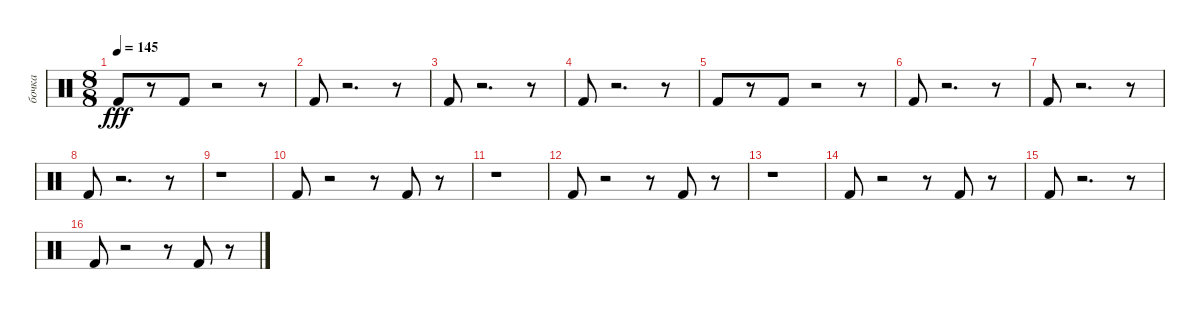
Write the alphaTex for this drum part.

\track ("бочка" "бочка") {instrument percussion}
\staff {score}
\articulation defaults
\ts (8 8)
\tempo 145
\clef neutral
\ks c "Kick (hit) 2".8{dy fff}
r.8 "Kick (hit) 2".8 r.2 r.8 |
"Kick (hit) 2".8 r.2{d} r.8 |
"Kick (hit) 2".8 r.2{d} r.8 |
"Kick (hit) 2".8 r.2{d} r.8 |
"Kick (hit) 2".8 r.8 "Kick (hit) 2".8 r.2 r.8 |
"Kick (hit) 2".8 r.2{d} r.8 |
"Kick (hit) 2".8 r.2{d} r.8 |
"Kick (hit) 2".8 r.2{d} r.8 |
r.1 |
"Kick (hit) 2".8 r.2 r.8 "Kick (hit) 2".8 r.8 |
r.1 |
"Kick (hit) 2".8 r.2 r.8 "Kick (hit) 2".8 r.8 |
r.1 |
"Kick (hit) 2".8 r.2 r.8 "Kick (hit) 2".8 r.8 |
"Kick (hit) 2".8 r.2{d} r.8 |
"Kick (hit) 2".8 r.2 r.8 "Kick (hit) 2".8 r.8
